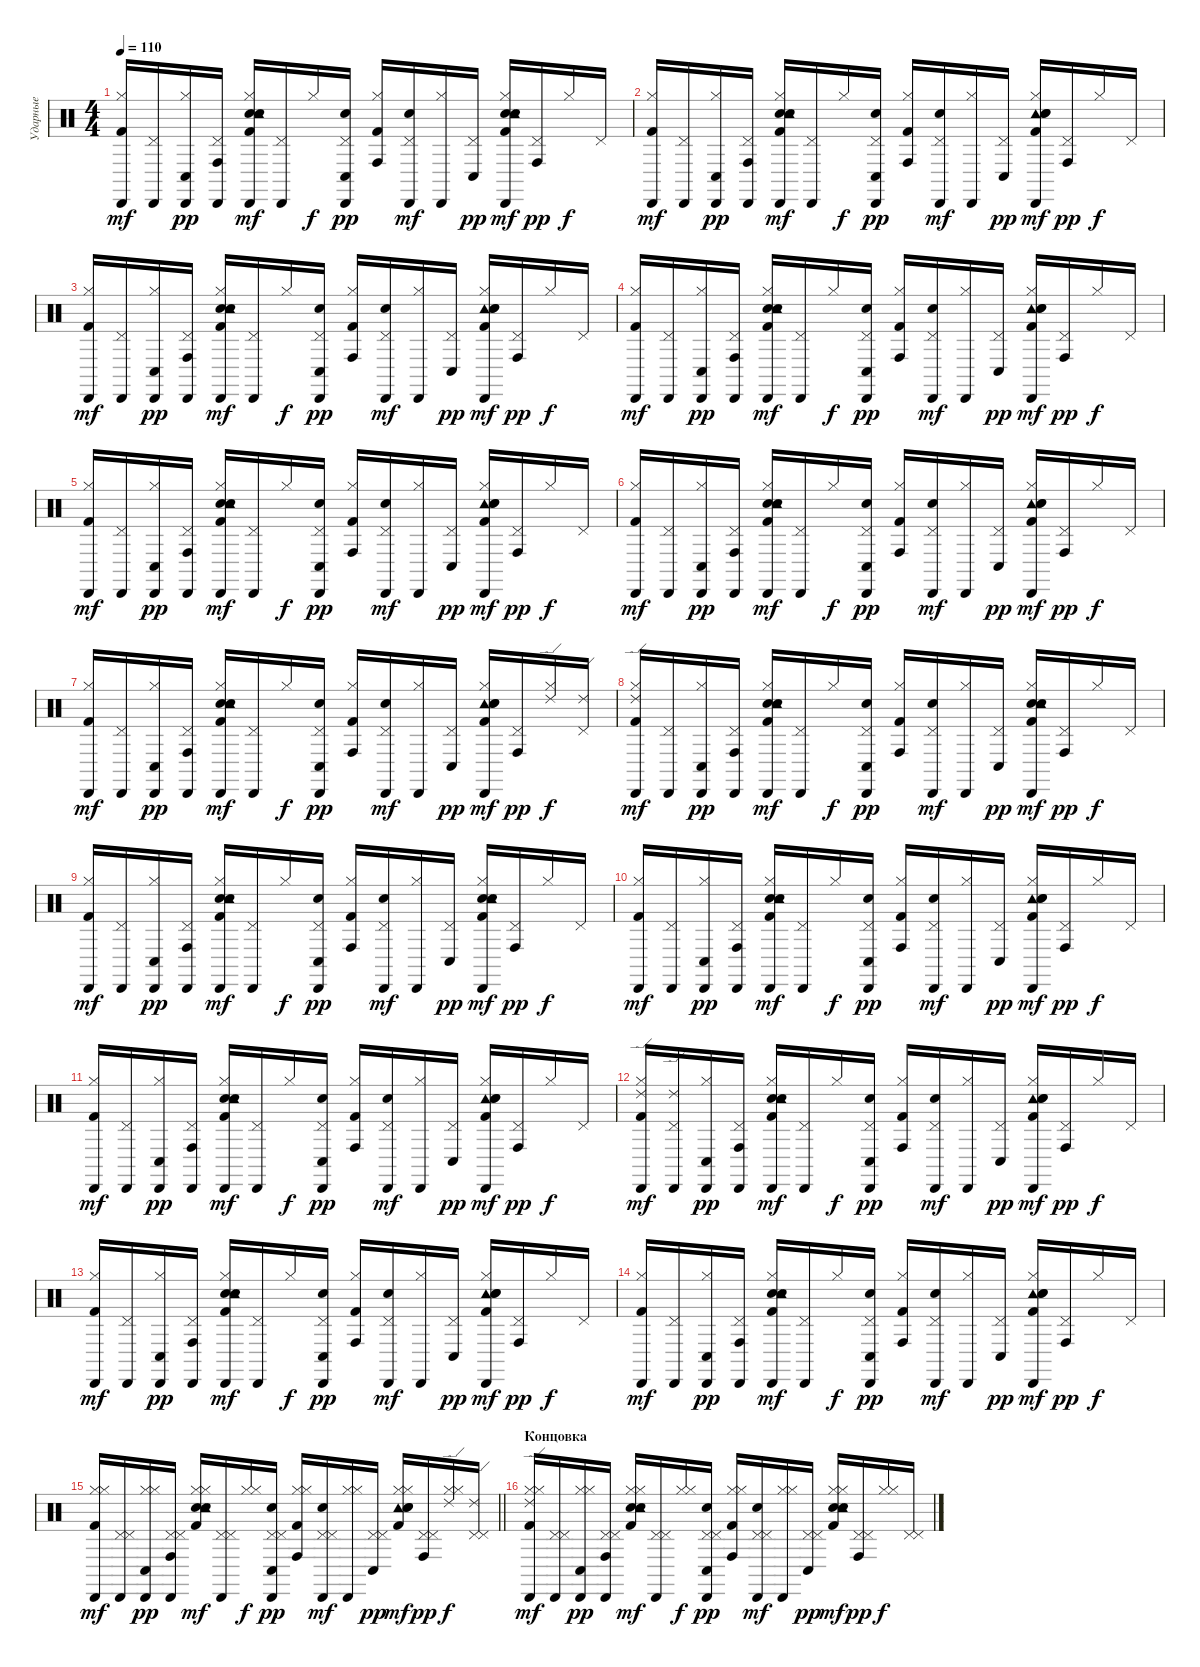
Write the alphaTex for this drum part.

\track ("Ударные" "Ударные") {instrument percussion}
\staff {score}
\articulation defaults
\ts (4 4)
\tempo 110
\clef neutral
\ks c
("Kick (hit) 2" "Hi-Hat (closed)" "Cabasa (hit)").16{dy mf} ("Pedal Hi-Hat (hit)" "Cabasa (hit)").16 ("Hi-Hat (closed)" "Cabasa (hit)" "Conga low (hit)").16{dy pp} ("Pedal Hi-Hat (hit)" "Cabasa (hit)" "Conga high (hit)").16 ("Kick (hit) 2" "Snare (hit) 2" "Tambourine (hit)" "Electric Snare (hit)" "Hi-Hat (closed)" "Cabasa (hit)").16{dy mf} ("Pedal Hi-Hat (hit)" "Cabasa (hit)").16 "Hi-Hat (closed)".16{dy f} ("Electric Snare (hit)" "Pedal Hi-Hat (hit)" "Cabasa (hit)" "Conga low (hit)").16{dy pp} ("Kick (hit) 2" "Hi-Hat (closed)" "Conga high (hit)").16 ("Electric Snare (hit)" "Pedal Hi-Hat (hit)" "Cabasa (hit)").16{dy mf} ("Hi-Hat (closed)" "Cabasa (hit)").16 ("Pedal Hi-Hat (hit)" "Conga low (hit)").16{dy pp} ("Electric Snare (hit)" "Kick (hit) 2" "Tambourine (hit)" "Snare (hit) 2" "Hi-Hat (closed)" "Cabasa (hit)").16{dy mf} ("Pedal Hi-Hat (hit)" "Conga high (hit)").16{dy pp} "Hi-Hat (closed)".16{dy f} "Pedal Hi-Hat (hit)".16 |
("Kick (hit) 2" "Hi-Hat (closed)" "Cabasa (hit)").16{dy mf} ("Pedal Hi-Hat (hit)" "Cabasa (hit)").16 ("Hi-Hat (closed)" "Cabasa (hit)" "Conga low (hit)").16{dy pp} ("Pedal Hi-Hat (hit)" "Cabasa (hit)" "Conga high (hit)").16 ("Kick (hit) 2" "Snare (hit) 2" "Tambourine (hit)" "Electric Snare (hit)" "Hi-Hat (closed)" "Cabasa (hit)").16{dy mf} ("Pedal Hi-Hat (hit)" "Cabasa (hit)").16 "Hi-Hat (closed)".16{dy f} ("Electric Snare (hit)" "Pedal Hi-Hat (hit)" "Cabasa (hit)" "Conga low (hit)").16{dy pp} ("Kick (hit) 2" "Hi-Hat (closed)" "Conga high (hit)").16 ("Electric Snare (hit)" "Pedal Hi-Hat (hit)" "Cabasa (hit)").16{dy mf} ("Hi-Hat (closed)" "Cabasa (hit)").16 ("Pedal Hi-Hat (hit)" "Conga low (hit)").16{dy pp} ("Tambourine (hit)" "Electric Snare (hit)" "Snare (hit) 2" "Kick (hit) 2" "Hi-Hat (closed)" "Cabasa (hit)").16{dy mf} ("Pedal Hi-Hat (hit)" "Conga high (hit)").16{dy pp} "Hi-Hat (closed)".16{dy f} "Pedal Hi-Hat (hit)".16 |
("Kick (hit) 2" "Hi-Hat (closed)" "Cabasa (hit)").16{dy mf} ("Pedal Hi-Hat (hit)" "Cabasa (hit)").16 ("Hi-Hat (closed)" "Cabasa (hit)" "Conga low (hit)").16{dy pp} ("Pedal Hi-Hat (hit)" "Cabasa (hit)" "Conga high (hit)").16 ("Snare (hit) 2" "Kick (hit) 2" "Tambourine (hit)" "Electric Snare (hit)" "Hi-Hat (closed)" "Cabasa (hit)").16{dy mf} ("Pedal Hi-Hat (hit)" "Cabasa (hit)").16 "Hi-Hat (closed)".16{dy f} ("Electric Snare (hit)" "Pedal Hi-Hat (hit)" "Cabasa (hit)" "Conga low (hit)").16{dy pp} ("Kick (hit) 2" "Hi-Hat (closed)" "Conga high (hit)").16 ("Electric Snare (hit)" "Pedal Hi-Hat (hit)" "Cabasa (hit)").16{dy mf} ("Hi-Hat (closed)" "Cabasa (hit)").16 ("Pedal Hi-Hat (hit)" "Conga low (hit)").16{dy pp} ("Kick (hit) 2" "Tambourine (hit)" "Snare (hit) 2" "Electric Snare (hit)" "Hi-Hat (closed)" "Cabasa (hit)").16{dy mf} ("Pedal Hi-Hat (hit)" "Conga high (hit)").16{dy pp} "Hi-Hat (closed)".16{dy f} "Pedal Hi-Hat (hit)".16 |
("Kick (hit) 2" "Hi-Hat (closed)" "Cabasa (hit)").16{dy mf} ("Pedal Hi-Hat (hit)" "Cabasa (hit)").16 ("Hi-Hat (closed)" "Cabasa (hit)" "Conga low (hit)").16{dy pp} ("Pedal Hi-Hat (hit)" "Cabasa (hit)" "Conga high (hit)").16 ("Snare (hit) 2" "Kick (hit) 2" "Tambourine (hit)" "Electric Snare (hit)" "Hi-Hat (closed)" "Cabasa (hit)").16{dy mf} ("Pedal Hi-Hat (hit)" "Cabasa (hit)").16 "Hi-Hat (closed)".16{dy f} ("Electric Snare (hit)" "Pedal Hi-Hat (hit)" "Cabasa (hit)" "Conga low (hit)").16{dy pp} ("Kick (hit) 2" "Hi-Hat (closed)" "Conga high (hit)").16 ("Electric Snare (hit)" "Pedal Hi-Hat (hit)" "Cabasa (hit)").16{dy mf} ("Hi-Hat (closed)" "Cabasa (hit)").16 ("Pedal Hi-Hat (hit)" "Conga low (hit)").16{dy pp} ("Kick (hit) 2" "Tambourine (hit)" "Snare (hit) 2" "Electric Snare (hit)" "Hi-Hat (closed)" "Cabasa (hit)").16{dy mf} ("Pedal Hi-Hat (hit)" "Conga high (hit)").16{dy pp} "Hi-Hat (closed)".16{dy f} "Pedal Hi-Hat (hit)".16 |
("Kick (hit) 2" "Hi-Hat (closed)" "Cabasa (hit)").16{dy mf} ("Pedal Hi-Hat (hit)" "Cabasa (hit)").16 ("Hi-Hat (closed)" "Cabasa (hit)" "Conga low (hit)").16{dy pp} ("Pedal Hi-Hat (hit)" "Cabasa (hit)" "Conga high (hit)").16 ("Snare (hit) 2" "Kick (hit) 2" "Tambourine (hit)" "Electric Snare (hit)" "Hi-Hat (closed)" "Cabasa (hit)").16{dy mf} ("Pedal Hi-Hat (hit)" "Cabasa (hit)").16 "Hi-Hat (closed)".16{dy f} ("Electric Snare (hit)" "Pedal Hi-Hat (hit)" "Cabasa (hit)" "Conga low (hit)").16{dy pp} ("Kick (hit) 2" "Hi-Hat (closed)" "Conga high (hit)").16 ("Electric Snare (hit)" "Pedal Hi-Hat (hit)" "Cabasa (hit)").16{dy mf} ("Hi-Hat (closed)" "Cabasa (hit)").16 ("Pedal Hi-Hat (hit)" "Conga low (hit)").16{dy pp} ("Kick (hit) 2" "Tambourine (hit)" "Snare (hit) 2" "Electric Snare (hit)" "Hi-Hat (closed)" "Cabasa (hit)").16{dy mf} ("Pedal Hi-Hat (hit)" "Conga high (hit)").16{dy pp} "Hi-Hat (closed)".16{dy f} "Pedal Hi-Hat (hit)".16 |
("Kick (hit) 2" "Hi-Hat (closed)" "Cabasa (hit)").16{dy mf} ("Pedal Hi-Hat (hit)" "Cabasa (hit)").16 ("Hi-Hat (closed)" "Cabasa (hit)" "Conga low (hit)").16{dy pp} ("Pedal Hi-Hat (hit)" "Cabasa (hit)" "Conga high (hit)").16 ("Snare (hit) 2" "Kick (hit) 2" "Tambourine (hit)" "Electric Snare (hit)" "Hi-Hat (closed)" "Cabasa (hit)").16{dy mf} ("Pedal Hi-Hat (hit)" "Cabasa (hit)").16 "Hi-Hat (closed)".16{dy f} ("Electric Snare (hit)" "Pedal Hi-Hat (hit)" "Cabasa (hit)" "Conga low (hit)").16{dy pp} ("Kick (hit) 2" "Hi-Hat (closed)" "Conga high (hit)").16 ("Electric Snare (hit)" "Pedal Hi-Hat (hit)" "Cabasa (hit)").16{dy mf} ("Hi-Hat (closed)" "Cabasa (hit)").16 ("Pedal Hi-Hat (hit)" "Conga low (hit)").16{dy pp} ("Kick (hit) 2" "Tambourine (hit)" "Snare (hit) 2" "Electric Snare (hit)" "Hi-Hat (closed)" "Cabasa (hit)").16{dy mf} ("Pedal Hi-Hat (hit)" "Conga high (hit)").16{dy pp} "Hi-Hat (closed)".16{dy f} "Pedal Hi-Hat (hit)".16 |
("Kick (hit) 2" "Hi-Hat (closed)" "Cabasa (hit)").16{dy mf} ("Pedal Hi-Hat (hit)" "Cabasa (hit)").16 ("Hi-Hat (closed)" "Cabasa (hit)" "Conga low (hit)").16{dy pp} ("Pedal Hi-Hat (hit)" "Cabasa (hit)" "Conga high (hit)").16 ("Snare (hit) 2" "Kick (hit) 2" "Tambourine (hit)" "Electric Snare (hit)" "Hi-Hat (closed)" "Cabasa (hit)").16{dy mf} ("Pedal Hi-Hat (hit)" "Cabasa (hit)").16 "Hi-Hat (closed)".16{dy f} ("Electric Snare (hit)" "Pedal Hi-Hat (hit)" "Cabasa (hit)" "Conga low (hit)").16{dy pp} ("Kick (hit) 2" "Hi-Hat (closed)" "Conga high (hit)").16 ("Electric Snare (hit)" "Pedal Hi-Hat (hit)" "Cabasa (hit)").16{dy mf} ("Hi-Hat (closed)" "Cabasa (hit)").16 ("Pedal Hi-Hat (hit)" "Conga low (hit)").16{dy pp} ("Kick (hit) 2" "Tambourine (hit)" "Snare (hit) 2" "Electric Snare (hit)" "Hi-Hat (closed)" "Cabasa (hit)").16{dy mf} ("Pedal Hi-Hat (hit)" "Conga high (hit)").16{dy pp} ("Ride (edge) 2" "Hi-Hat (closed)").16{dy f} ("Pedal Hi-Hat (hit)" "Ride (edge) 2").16 |
("Kick (hit) 2" "Hi-Hat (closed)" "Ride (edge) 2" "Cabasa (hit)").16{dy mf} ("Pedal Hi-Hat (hit)" "Cabasa (hit)").16 ("Hi-Hat (closed)" "Cabasa (hit)" "Conga low (hit)").16{dy pp} ("Pedal Hi-Hat (hit)" "Cabasa (hit)" "Conga high (hit)").16 ("Kick (hit) 2" "Snare (hit) 2" "Tambourine (hit)" "Electric Snare (hit)" "Hi-Hat (closed)" "Cabasa (hit)").16{dy mf} ("Pedal Hi-Hat (hit)" "Cabasa (hit)").16 "Hi-Hat (closed)".16{dy f} ("Electric Snare (hit)" "Pedal Hi-Hat (hit)" "Cabasa (hit)" "Conga low (hit)").16{dy pp} ("Kick (hit) 2" "Hi-Hat (closed)" "Conga high (hit)").16 ("Electric Snare (hit)" "Pedal Hi-Hat (hit)" "Cabasa (hit)").16{dy mf} ("Hi-Hat (closed)" "Cabasa (hit)").16 ("Pedal Hi-Hat (hit)" "Conga low (hit)").16{dy pp} ("Electric Snare (hit)" "Kick (hit) 2" "Tambourine (hit)" "Snare (hit) 2" "Hi-Hat (closed)" "Cabasa (hit)").16{dy mf} ("Pedal Hi-Hat (hit)" "Conga high (hit)").16{dy pp} "Hi-Hat (closed)".16{dy f} "Pedal Hi-Hat (hit)".16 |
("Kick (hit) 2" "Hi-Hat (closed)" "Cabasa (hit)").16{dy mf} ("Pedal Hi-Hat (hit)" "Cabasa (hit)").16 ("Hi-Hat (closed)" "Cabasa (hit)" "Conga low (hit)").16{dy pp} ("Pedal Hi-Hat (hit)" "Cabasa (hit)" "Conga high (hit)").16 ("Kick (hit) 2" "Snare (hit) 2" "Tambourine (hit)" "Electric Snare (hit)" "Hi-Hat (closed)" "Cabasa (hit)").16{dy mf} ("Pedal Hi-Hat (hit)" "Cabasa (hit)").16 "Hi-Hat (closed)".16{dy f} ("Electric Snare (hit)" "Pedal Hi-Hat (hit)" "Cabasa (hit)" "Conga low (hit)").16{dy pp} ("Kick (hit) 2" "Hi-Hat (closed)" "Conga high (hit)").16 ("Electric Snare (hit)" "Pedal Hi-Hat (hit)" "Cabasa (hit)").16{dy mf} ("Hi-Hat (closed)" "Cabasa (hit)").16 ("Pedal Hi-Hat (hit)" "Conga low (hit)").16{dy pp} ("Electric Snare (hit)" "Kick (hit) 2" "Tambourine (hit)" "Snare (hit) 2" "Hi-Hat (closed)" "Cabasa (hit)").16{dy mf} ("Pedal Hi-Hat (hit)" "Conga high (hit)").16{dy pp} "Hi-Hat (closed)".16{dy f} "Pedal Hi-Hat (hit)".16 |
("Kick (hit) 2" "Hi-Hat (closed)" "Cabasa (hit)").16{dy mf} ("Pedal Hi-Hat (hit)" "Cabasa (hit)").16 ("Hi-Hat (closed)" "Cabasa (hit)" "Conga low (hit)").16{dy pp} ("Pedal Hi-Hat (hit)" "Cabasa (hit)" "Conga high (hit)").16 ("Kick (hit) 2" "Snare (hit) 2" "Tambourine (hit)" "Electric Snare (hit)" "Hi-Hat (closed)" "Cabasa (hit)").16{dy mf} ("Pedal Hi-Hat (hit)" "Cabasa (hit)").16 "Hi-Hat (closed)".16{dy f} ("Electric Snare (hit)" "Pedal Hi-Hat (hit)" "Cabasa (hit)" "Conga low (hit)").16{dy pp} ("Kick (hit) 2" "Hi-Hat (closed)" "Conga high (hit)").16 ("Electric Snare (hit)" "Pedal Hi-Hat (hit)" "Cabasa (hit)").16{dy mf} ("Hi-Hat (closed)" "Cabasa (hit)").16 ("Pedal Hi-Hat (hit)" "Conga low (hit)").16{dy pp} ("Tambourine (hit)" "Electric Snare (hit)" "Snare (hit) 2" "Kick (hit) 2" "Hi-Hat (closed)" "Cabasa (hit)").16{dy mf} ("Pedal Hi-Hat (hit)" "Conga high (hit)").16{dy pp} "Hi-Hat (closed)".16{dy f} "Pedal Hi-Hat (hit)".16 |
("Kick (hit) 2" "Hi-Hat (closed)" "Cabasa (hit)").16{dy mf} ("Pedal Hi-Hat (hit)" "Cabasa (hit)").16 ("Hi-Hat (closed)" "Cabasa (hit)" "Conga low (hit)").16{dy pp} ("Pedal Hi-Hat (hit)" "Cabasa (hit)" "Conga high (hit)").16 ("Snare (hit) 2" "Kick (hit) 2" "Tambourine (hit)" "Electric Snare (hit)" "Hi-Hat (closed)" "Cabasa (hit)").16{dy mf} ("Pedal Hi-Hat (hit)" "Cabasa (hit)").16 "Hi-Hat (closed)".16{dy f} ("Electric Snare (hit)" "Pedal Hi-Hat (hit)" "Cabasa (hit)" "Conga low (hit)").16{dy pp} ("Kick (hit) 2" "Hi-Hat (closed)" "Conga high (hit)").16 ("Electric Snare (hit)" "Pedal Hi-Hat (hit)" "Cabasa (hit)").16{dy mf} ("Hi-Hat (closed)" "Cabasa (hit)").16 ("Pedal Hi-Hat (hit)" "Conga low (hit)").16{dy pp} ("Kick (hit) 2" "Tambourine (hit)" "Snare (hit) 2" "Electric Snare (hit)" "Hi-Hat (closed)" "Cabasa (hit)").16{dy mf} ("Pedal Hi-Hat (hit)" "Conga high (hit)").16{dy pp} "Hi-Hat (closed)".16{dy f} "Pedal Hi-Hat (hit)".16 |
("Kick (hit) 2" "Hi-Hat (closed)" "Ride (edge) 2" "Cabasa (hit)").16{dy mf} ("Ride (edge) 2" "Pedal Hi-Hat (hit)" "Cabasa (hit)").16 ("Hi-Hat (closed)" "Cabasa (hit)" "Conga low (hit)").16{dy pp} ("Pedal Hi-Hat (hit)" "Cabasa (hit)" "Conga high (hit)").16 ("Snare (hit) 2" "Kick (hit) 2" "Tambourine (hit)" "Electric Snare (hit)" "Hi-Hat (closed)" "Cabasa (hit)").16{dy mf} ("Pedal Hi-Hat (hit)" "Cabasa (hit)").16 "Hi-Hat (closed)".16{dy f} ("Electric Snare (hit)" "Pedal Hi-Hat (hit)" "Cabasa (hit)" "Conga low (hit)").16{dy pp} ("Kick (hit) 2" "Hi-Hat (closed)" "Conga high (hit)").16 ("Electric Snare (hit)" "Pedal Hi-Hat (hit)" "Cabasa (hit)").16{dy mf} ("Hi-Hat (closed)" "Cabasa (hit)").16 ("Pedal Hi-Hat (hit)" "Conga low (hit)").16{dy pp} ("Kick (hit) 2" "Tambourine (hit)" "Snare (hit) 2" "Electric Snare (hit)" "Hi-Hat (closed)" "Cabasa (hit)").16{dy mf} ("Pedal Hi-Hat (hit)" "Conga high (hit)").16{dy pp} "Hi-Hat (closed)".16{dy f} "Pedal Hi-Hat (hit)".16 |
("Kick (hit) 2" "Hi-Hat (closed)" "Cabasa (hit)").16{dy mf} ("Pedal Hi-Hat (hit)" "Cabasa (hit)").16 ("Hi-Hat (closed)" "Cabasa (hit)" "Conga low (hit)").16{dy pp} ("Pedal Hi-Hat (hit)" "Cabasa (hit)" "Conga high (hit)").16 ("Snare (hit) 2" "Kick (hit) 2" "Tambourine (hit)" "Electric Snare (hit)" "Hi-Hat (closed)" "Cabasa (hit)").16{dy mf} ("Pedal Hi-Hat (hit)" "Cabasa (hit)").16 "Hi-Hat (closed)".16{dy f} ("Electric Snare (hit)" "Pedal Hi-Hat (hit)" "Cabasa (hit)" "Conga low (hit)").16{dy pp} ("Kick (hit) 2" "Hi-Hat (closed)" "Conga high (hit)").16 ("Electric Snare (hit)" "Pedal Hi-Hat (hit)" "Cabasa (hit)").16{dy mf} ("Hi-Hat (closed)" "Cabasa (hit)").16 ("Pedal Hi-Hat (hit)" "Conga low (hit)").16{dy pp} ("Kick (hit) 2" "Tambourine (hit)" "Snare (hit) 2" "Electric Snare (hit)" "Hi-Hat (closed)" "Cabasa (hit)").16{dy mf} ("Pedal Hi-Hat (hit)" "Conga high (hit)").16{dy pp} "Hi-Hat (closed)".16{dy f} "Pedal Hi-Hat (hit)".16 |
("Kick (hit) 2" "Hi-Hat (closed)" "Cabasa (hit)").16{dy mf} ("Pedal Hi-Hat (hit)" "Cabasa (hit)").16 ("Hi-Hat (closed)" "Cabasa (hit)" "Conga low (hit)").16{dy pp} ("Pedal Hi-Hat (hit)" "Cabasa (hit)" "Conga high (hit)").16 ("Snare (hit) 2" "Kick (hit) 2" "Tambourine (hit)" "Electric Snare (hit)" "Hi-Hat (closed)" "Cabasa (hit)").16{dy mf} ("Pedal Hi-Hat (hit)" "Cabasa (hit)").16 "Hi-Hat (closed)".16{dy f} ("Electric Snare (hit)" "Pedal Hi-Hat (hit)" "Cabasa (hit)" "Conga low (hit)").16{dy pp} ("Kick (hit) 2" "Hi-Hat (closed)" "Conga high (hit)").16 ("Electric Snare (hit)" "Pedal Hi-Hat (hit)" "Cabasa (hit)").16{dy mf} ("Hi-Hat (closed)" "Cabasa (hit)").16 ("Pedal Hi-Hat (hit)" "Conga low (hit)").16{dy pp} ("Kick (hit) 2" "Tambourine (hit)" "Snare (hit) 2" "Electric Snare (hit)" "Hi-Hat (closed)" "Cabasa (hit)").16{dy mf} ("Pedal Hi-Hat (hit)" "Conga high (hit)").16{dy pp} "Hi-Hat (closed)".16{dy f} "Pedal Hi-Hat (hit)".16 |
\barLineRight lightlight
("Kick (hit) 2" "Hi-Hat (closed)" "Hi-Hat (closed)" "Cabasa (hit)").16{dy mf} ("Pedal Hi-Hat (hit)" "Pedal Hi-Hat (hit)" "Cabasa (hit)").16 ("Hi-Hat (closed)" "Hi-Hat (closed)" "Cabasa (hit)" "Conga low (hit)").16{dy pp} ("Pedal Hi-Hat (hit)" "Pedal Hi-Hat (hit)" "Cabasa (hit)" "Conga high (hit)").16 ("Snare (hit) 2" "Kick (hit) 2" "Tambourine (hit)" "Electric Snare (hit)" "Hi-Hat (closed)" "Hi-Hat (closed)").16{dy mf} ("Pedal Hi-Hat (hit)" "Pedal Hi-Hat (hit)" "Cabasa (hit)").16 ("Hi-Hat (closed)" "Hi-Hat (closed)").16{dy f} ("Electric Snare (hit)" "Pedal Hi-Hat (hit)" "Pedal Hi-Hat (hit)" "Cabasa (hit)" "Conga low (hit)").16{dy pp} ("Kick (hit) 2" "Hi-Hat (closed)" "Hi-Hat (closed)" "Conga high (hit)").16 ("Electric Snare (hit)" "Pedal Hi-Hat (hit)" "Pedal Hi-Hat (hit)" "Cabasa (hit)").16{dy mf} ("Hi-Hat (closed)" "Hi-Hat (closed)" "Cabasa (hit)").16 ("Pedal Hi-Hat (hit)" "Pedal Hi-Hat (hit)" "Conga low (hit)").16{dy pp} ("Kick (hit) 2" "Tambourine (hit)" "Snare (hit) 2" "Electric Snare (hit)" "Hi-Hat (closed)" "Hi-Hat (closed)").16{dy mf} ("Pedal Hi-Hat (hit)" "Pedal Hi-Hat (hit)" "Conga high (hit)").16{dy pp} ("Hi-Hat (closed)" "Ride (edge) 2" "Hi-Hat (closed)").16{dy f} ("Pedal Hi-Hat (hit)" "Ride (edge) 2" "Pedal Hi-Hat (hit)").16 |
\section ("" "Концовка")
("Kick (hit) 2" "Hi-Hat (closed)" "Hi-Hat (closed)" "Ride (edge) 2" "Cabasa (hit)").16{dy mf} ("Pedal Hi-Hat (hit)" "Pedal Hi-Hat (hit)" "Cabasa (hit)").16 ("Hi-Hat (closed)" "Hi-Hat (closed)" "Cabasa (hit)" "Conga low (hit)").16{dy pp} ("Pedal Hi-Hat (hit)" "Pedal Hi-Hat (hit)" "Cabasa (hit)" "Conga high (hit)").16 ("Kick (hit) 2" "Snare (hit) 2" "Tambourine (hit)" "Electric Snare (hit)" "Hi-Hat (closed)" "Hi-Hat (closed)").16{dy mf} ("Pedal Hi-Hat (hit)" "Pedal Hi-Hat (hit)" "Cabasa (hit)").16 ("Hi-Hat (closed)" "Hi-Hat (closed)").16{dy f} ("Electric Snare (hit)" "Pedal Hi-Hat (hit)" "Pedal Hi-Hat (hit)" "Cabasa (hit)" "Conga low (hit)").16{dy pp} ("Kick (hit) 2" "Hi-Hat (closed)" "Hi-Hat (closed)" "Conga high (hit)").16 ("Electric Snare (hit)" "Pedal Hi-Hat (hit)" "Pedal Hi-Hat (hit)" "Cabasa (hit)").16{dy mf} ("Hi-Hat (closed)" "Hi-Hat (closed)" "Cabasa (hit)").16 ("Pedal Hi-Hat (hit)" "Pedal Hi-Hat (hit)" "Conga low (hit)").16{dy pp} ("Electric Snare (hit)" "Kick (hit) 2" "Tambourine (hit)" "Snare (hit) 2" "Hi-Hat (closed)" "Hi-Hat (closed)").16{dy mf} ("Pedal Hi-Hat (hit)" "Pedal Hi-Hat (hit)" "Conga high (hit)").16{dy pp} ("Hi-Hat (closed)" "Hi-Hat (closed)").16{dy f} ("Pedal Hi-Hat (hit)" "Pedal Hi-Hat (hit)").16
